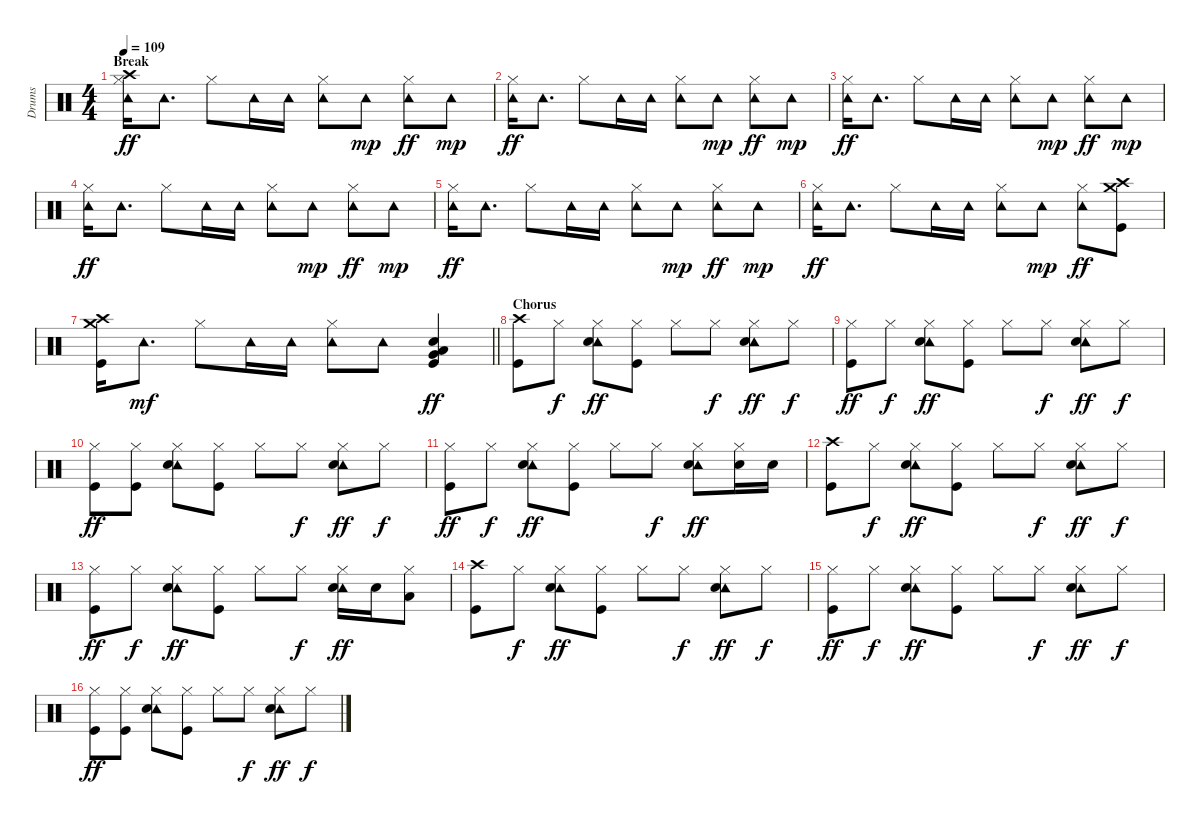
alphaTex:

\track ("Drums" "Drums") {instrument percussion}
\staff {score}
\articulation defaults
\ts (4 4)
\section ("" "Break")
\tempo 109
\clef neutral
\ks c
("Tambourine (hit)" "Hi-Hat (closed)" "Crash high (hit)").16{dy ff} "Tambourine (hit)".8{d} "Hi-Hat (closed)".8 "Tambourine (hit)".16 "Tambourine (hit)".16 ("Tambourine (hit)" "Hi-Hat (closed)").8 "Tambourine (hit)".8{dy mp} ("Tambourine (hit)" "Hi-Hat (closed)").8{dy ff} "Tambourine (hit)".8{dy mp} |
("Tambourine (hit)" "Hi-Hat (closed)").16{dy ff} "Tambourine (hit)".8{d} "Hi-Hat (closed)".8 "Tambourine (hit)".16 "Tambourine (hit)".16 ("Tambourine (hit)" "Hi-Hat (closed)").8 "Tambourine (hit)".8{dy mp} ("Tambourine (hit)" "Hi-Hat (closed)").8{dy ff} "Tambourine (hit)".8{dy mp} |
("Tambourine (hit)" "Hi-Hat (closed)").16{dy ff} "Tambourine (hit)".8{d} "Hi-Hat (closed)".8 "Tambourine (hit)".16 "Tambourine (hit)".16 ("Tambourine (hit)" "Hi-Hat (closed)").8 "Tambourine (hit)".8{dy mp} ("Tambourine (hit)" "Hi-Hat (closed)").8{dy ff} "Tambourine (hit)".8{dy mp} |
("Tambourine (hit)" "Hi-Hat (closed)").16{dy ff} "Tambourine (hit)".8{d} "Hi-Hat (closed)".8 "Tambourine (hit)".16 "Tambourine (hit)".16 ("Tambourine (hit)" "Hi-Hat (closed)").8 "Tambourine (hit)".8{dy mp} ("Tambourine (hit)" "Hi-Hat (closed)").8{dy ff} "Tambourine (hit)".8{dy mp} |
("Tambourine (hit)" "Hi-Hat (closed)").16{dy ff} "Tambourine (hit)".8{d} "Hi-Hat (closed)".8 "Tambourine (hit)".16 "Tambourine (hit)".16 ("Tambourine (hit)" "Hi-Hat (closed)").8 "Tambourine (hit)".8{dy mp} ("Tambourine (hit)" "Hi-Hat (closed)").8{dy ff} "Tambourine (hit)".8{dy mp} |
("Tambourine (hit)" "Hi-Hat (closed)").16{dy ff} "Tambourine (hit)".8{d} "Hi-Hat (closed)".8 "Tambourine (hit)".16 "Tambourine (hit)".16 ("Tambourine (hit)" "Hi-Hat (closed)").8 "Tambourine (hit)".8{dy mp} ("Tambourine (hit)" "Hi-Hat (closed)").8{dy ff} ("Crash high (hit)" "Crash medium (hit)" "Kick (hit)").8 |
\barLineRight lightlight
("Crash high (hit)" "Crash medium (hit)" "Kick (hit)").16 "Tambourine (hit)".8{d dy mf} "Hi-Hat (closed)".8 "Tambourine (hit)".16 "Tambourine (hit)".16 ("Tambourine (hit)" "Hi-Hat (closed)").8 "Tambourine (hit)".8 ("Electric Snare (hit)" "Very Low Tom (hit)" "Low Floor Tom (hit)" "Kick (hit)").4{dy ff} |
\section ("" "Chorus")
("Crash high (hit)" "Kick (hit)").8 "Hi-Hat (closed)".8{dy f} ("Hi-Hat (closed)" "Tambourine (hit)" "Electric Snare (hit)").8{dy ff} ("Hi-Hat (closed)" "Kick (hit)").8 "Hi-Hat (closed)".8 "Hi-Hat (closed)".8{dy f} ("Hi-Hat (closed)" "Tambourine (hit)" "Electric Snare (hit)").8{dy ff} "Hi-Hat (closed)".8{dy f} |
("Hi-Hat (closed)" "Kick (hit)").8{dy ff} "Hi-Hat (closed)".8{dy f} ("Hi-Hat (closed)" "Tambourine (hit)" "Electric Snare (hit)").8{dy ff} ("Hi-Hat (closed)" "Kick (hit)").8 "Hi-Hat (closed)".8 "Hi-Hat (closed)".8{dy f} ("Hi-Hat (closed)" "Tambourine (hit)" "Electric Snare (hit)").8{dy ff} "Hi-Hat (closed)".8{dy f} |
("Hi-Hat (closed)" "Kick (hit)").8{dy ff} ("Hi-Hat (closed)" "Kick (hit)").8 ("Hi-Hat (closed)" "Tambourine (hit)" "Electric Snare (hit)").8 ("Hi-Hat (closed)" "Kick (hit)").8 "Hi-Hat (closed)".8 "Hi-Hat (closed)".8{dy f} ("Hi-Hat (closed)" "Tambourine (hit)" "Electric Snare (hit)").8{dy ff} "Hi-Hat (closed)".8{dy f} |
("Hi-Hat (closed)" "Kick (hit)").8{dy ff} "Hi-Hat (closed)".8{dy f} ("Hi-Hat (closed)" "Tambourine (hit)" "Electric Snare (hit)").8{dy ff} ("Hi-Hat (closed)" "Kick (hit)").8 "Hi-Hat (closed)".8 "Hi-Hat (closed)".8{dy f} ("Hi-Hat (closed)" "Tambourine (hit)" "Electric Snare (hit)").8{dy ff} ("Hi-Hat (closed)" "Electric Snare (hit)").16 "Electric Snare (hit)".16 |
("Crash high (hit)" "Kick (hit)").8 "Hi-Hat (closed)".8{dy f} ("Hi-Hat (closed)" "Tambourine (hit)" "Electric Snare (hit)").8{dy ff} ("Hi-Hat (closed)" "Kick (hit)").8 "Hi-Hat (closed)".8 "Hi-Hat (closed)".8{dy f} ("Hi-Hat (closed)" "Tambourine (hit)" "Electric Snare (hit)").8{dy ff} "Hi-Hat (closed)".8{dy f} |
("Hi-Hat (closed)" "Kick (hit)").8{dy ff} "Hi-Hat (closed)".8{dy f} ("Hi-Hat (closed)" "Tambourine (hit)" "Electric Snare (hit)").8{dy ff} ("Hi-Hat (closed)" "Kick (hit)").8 "Hi-Hat (closed)".8 "Hi-Hat (closed)".8{dy f} ("Hi-Hat (closed)" "Tambourine (hit)" "Electric Snare (hit)").16{dy ff} "Electric Snare (hit)".16 ("Hi-Hat (closed)" "Low Tom (hit)").8 |
("Crash high (hit)" "Kick (hit)").8 "Hi-Hat (closed)".8{dy f} ("Hi-Hat (closed)" "Tambourine (hit)" "Electric Snare (hit)").8{dy ff} ("Hi-Hat (closed)" "Kick (hit)").8 "Hi-Hat (closed)".8 "Hi-Hat (closed)".8{dy f} ("Hi-Hat (closed)" "Tambourine (hit)" "Electric Snare (hit)").8{dy ff} "Hi-Hat (closed)".8{dy f} |
("Hi-Hat (closed)" "Kick (hit)").8{dy ff} "Hi-Hat (closed)".8{dy f} ("Hi-Hat (closed)" "Tambourine (hit)" "Electric Snare (hit)").8{dy ff} ("Hi-Hat (closed)" "Kick (hit)").8 "Hi-Hat (closed)".8 "Hi-Hat (closed)".8{dy f} ("Hi-Hat (closed)" "Tambourine (hit)" "Electric Snare (hit)").8{dy ff} "Hi-Hat (closed)".8{dy f} |
("Hi-Hat (closed)" "Kick (hit)").8{dy ff} ("Hi-Hat (closed)" "Kick (hit)").8 ("Hi-Hat (closed)" "Tambourine (hit)" "Electric Snare (hit)").8 ("Hi-Hat (closed)" "Kick (hit)").8 "Hi-Hat (closed)".8 "Hi-Hat (closed)".8{dy f} ("Hi-Hat (closed)" "Tambourine (hit)" "Electric Snare (hit)").8{dy ff} "Hi-Hat (closed)".8{dy f}
